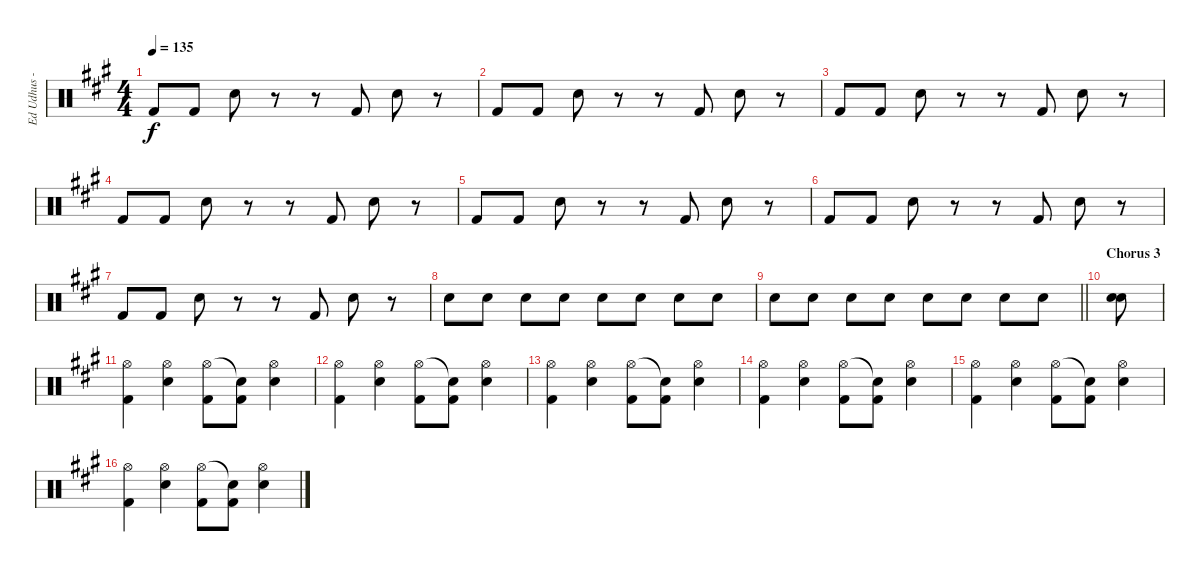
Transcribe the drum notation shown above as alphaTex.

\track ("Ed Udhus - Drums" "Ed Udhus -") {instrument percussion bank 127}
\staff {score}
\articulation defaults
\ts (4 4)
\tempo 135
\clef neutral
\ks a "Kick (hit) 2".8{dy f} "Kick (hit) 2".8 "Snare (hit) 2".8
r.8 r.8 "Kick (hit) 2".8 "Snare (hit) 2".8 r.8 |
"Kick (hit) 2".8 "Kick (hit) 2".8 "Snare (hit) 2".8 r.8 r.8 "Kick (hit) 2".8 "Snare (hit) 2".8 r.8 |
"Kick (hit) 2".8 "Kick (hit) 2".8 "Snare (hit) 2".8 r.8 r.8 "Kick (hit) 2".8 "Snare (hit) 2".8 r.8 |
"Kick (hit) 2".8 "Kick (hit) 2".8 "Snare (hit) 2".8 r.8 r.8 "Kick (hit) 2".8 "Snare (hit) 2".8 r.8 |
"Kick (hit) 2".8 "Kick (hit) 2".8 "Snare (hit) 2".8 r.8 r.8 "Kick (hit) 2".8 "Snare (hit) 2".8 r.8 |
"Kick (hit) 2".8 "Kick (hit) 2".8 "Snare (hit) 2".8 r.8 r.8 "Kick (hit) 2".8 "Snare (hit) 2".8 r.8 |
"Kick (hit) 2".8 "Kick (hit) 2".8 "Snare (hit) 2".8 r.8 r.8 "Kick (hit) 2".8 "Snare (hit) 2".8 r.8 |
"Snare (hit) 2".8{volume 5} "Snare (hit) 2".8{volume 14} "Snare (hit) 2".8 "Snare (hit) 2".8 "Snare (hit) 2".8 "Snare (hit) 2".8 "Snare (hit) 2".8 "Snare (hit) 2".8 |
\barLineRight lightlight "Snare (hit) 2".8 "Snare (hit) 2".8 "Snare (hit) 2".8 "Snare (hit) 2".8 "Snare (hit) 2".8 "Snare (hit) 2".8 "Snare (hit) 2".8 "Snare (hit) 2".8
|
\section ("" "Chorus 3")
("Snare (hit) 2" "Snare (hit) 2").8 |
("Hi-Hat (open)" "Kick (hit) 2").4 ("Hi-Hat (open)" "Snare (hit) 2").4 ("Hi-Hat (open)" "Kick (hit) 2").8 ("Snare (hit)"{t} "Kick (hit) 2").8 ("Hi-Hat (open)" "Snare (hit) 2").4 |
("Hi-Hat (open)" "Kick (hit) 2").4 ("Hi-Hat (open)" "Snare (hit) 2").4 ("Hi-Hat (open)" "Kick (hit) 2").8 ("Snare (hit)"{t} "Kick (hit) 2").8 ("Hi-Hat (open)" "Snare (hit) 2").4 |
("Hi-Hat (open)" "Kick (hit) 2").4 ("Hi-Hat (open)" "Snare (hit) 2").4 ("Hi-Hat (open)" "Kick (hit) 2").8 ("Snare (hit)"{t} "Kick (hit) 2").8 ("Hi-Hat (open)" "Snare (hit) 2").4 |
("Hi-Hat (open)" "Kick (hit) 2").4 ("Hi-Hat (open)" "Snare (hit) 2").4 ("Hi-Hat (open)" "Kick (hit) 2").8 ("Snare (hit)"{t} "Kick (hit) 2").8 ("Hi-Hat (open)" "Snare (hit) 2").4 |
("Hi-Hat (open)" "Kick (hit) 2").4 ("Hi-Hat (open)" "Snare (hit) 2").4 ("Hi-Hat (open)" "Kick (hit) 2").8 ("Snare (hit)"{t} "Kick (hit) 2").8 ("Hi-Hat (open)" "Snare (hit) 2").4 |
("Hi-Hat (open)" "Kick (hit) 2").4 ("Hi-Hat (open)" "Snare (hit) 2").4 ("Hi-Hat (open)" "Kick (hit) 2").8 ("Snare (hit)"{t} "Kick (hit) 2").8 ("Hi-Hat (open)" "Snare (hit) 2").4
